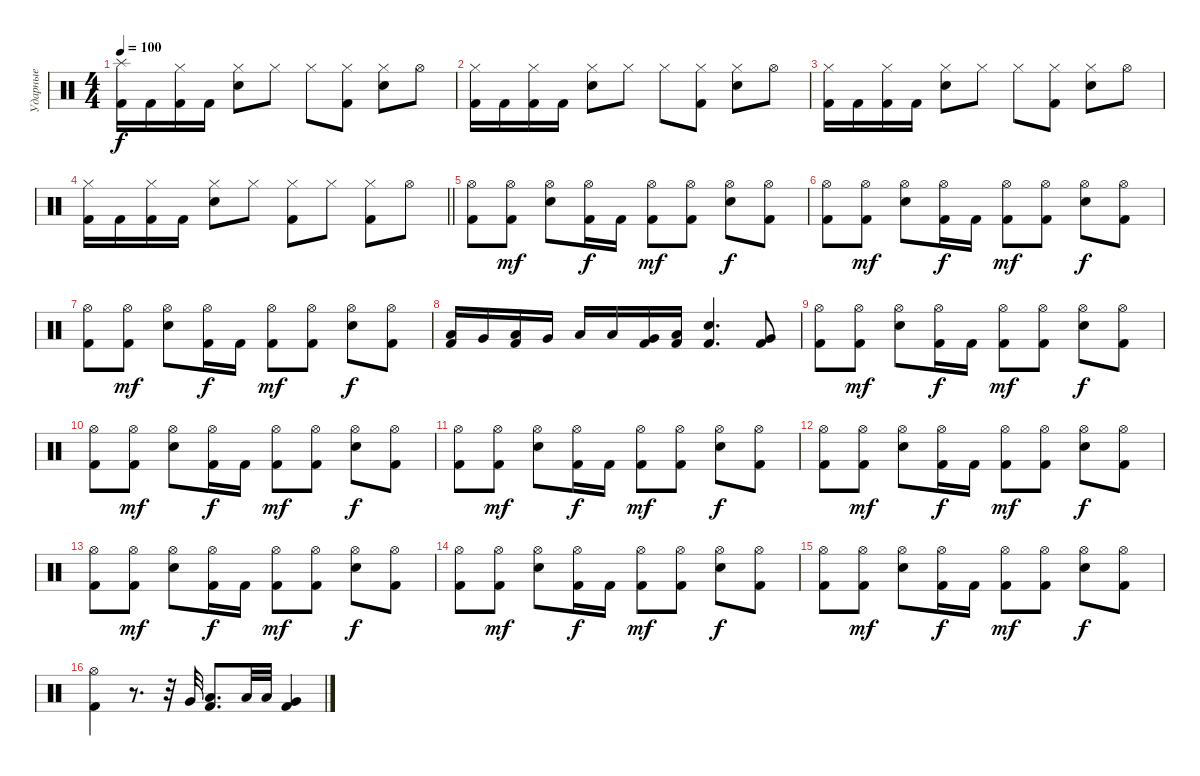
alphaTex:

\track ("Ударные" "Ударные") {instrument percussion}
\staff {score}
\articulation defaults
\ts (4 4)
\tempo 100
\clef neutral
\ks c
("Splash (hit)" "Kick (hit) 2").16{dy f} "Kick (hit) 2".16 ("Hi-Hat (closed)" "Kick (hit) 2").16 "Kick (hit) 2".16 ("Hi-Hat (closed)" "Snare (hit) 2").8 "Hi-Hat (closed)".8 "Hi-Hat (closed)".8 ("Hi-Hat (closed)" "Kick (hit) 2").8 ("Hi-Hat (closed)" "Snare (hit) 2").8 "Hi-Hat (open)".8 |
("Hi-Hat (closed)" "Kick (hit) 2").16 "Kick (hit) 2".16 ("Hi-Hat (closed)" "Kick (hit) 2").16 "Kick (hit) 2".16 ("Hi-Hat (closed)" "Snare (hit) 2").8 "Hi-Hat (closed)".8 "Hi-Hat (closed)".8 ("Hi-Hat (closed)" "Kick (hit) 2").8 ("Hi-Hat (closed)" "Snare (hit) 2").8 "Hi-Hat (open)".8 |
("Hi-Hat (closed)" "Kick (hit) 2").16 "Kick (hit) 2".16 ("Hi-Hat (closed)" "Kick (hit) 2").16 "Kick (hit) 2".16 ("Hi-Hat (closed)" "Snare (hit) 2").8 "Hi-Hat (closed)".8 "Hi-Hat (closed)".8 ("Hi-Hat (closed)" "Kick (hit) 2").8 ("Hi-Hat (closed)" "Snare (hit) 2").8 "Hi-Hat (open)".8 |
\barLineRight lightlight
("Hi-Hat (closed)" "Kick (hit) 2").16 "Kick (hit) 2".16 ("Hi-Hat (closed)" "Kick (hit) 2").16 "Kick (hit) 2".16 ("Hi-Hat (closed)" "Snare (hit) 2").8 "Hi-Hat (closed)".8 ("Hi-Hat (closed)" "Kick (hit) 2").8 "Hi-Hat (closed)".8 ("Hi-Hat (closed)" "Kick (hit) 2").8 "Hi-Hat (open)".8 |
("Hi-Hat (open)" "Kick (hit) 2").8 ("Hi-Hat (open)" "Kick (hit) 2").8{dy mf} ("Hi-Hat (open)" "Electric Snare (hit)").8 ("Hi-Hat (open)" "Kick (hit) 2").16{dy f} "Kick (hit) 2".16 ("Hi-Hat (open)" "Kick (hit) 2").8{dy mf} ("Hi-Hat (open)" "Kick (hit) 2").8 ("Hi-Hat (open)" "Electric Snare (hit)").8{dy f} ("Hi-Hat (open)" "Kick (hit) 2").8 |
("Hi-Hat (open)" "Kick (hit) 2").8 ("Hi-Hat (open)" "Kick (hit) 2").8{dy mf} ("Hi-Hat (open)" "Electric Snare (hit)").8 ("Hi-Hat (open)" "Kick (hit) 2").16{dy f} "Kick (hit) 2".16 ("Hi-Hat (open)" "Kick (hit) 2").8{dy mf} ("Hi-Hat (open)" "Kick (hit) 2").8 ("Hi-Hat (open)" "Electric Snare (hit)").8{dy f} ("Hi-Hat (open)" "Kick (hit) 2").8 |
("Hi-Hat (open)" "Kick (hit) 2").8 ("Hi-Hat (open)" "Kick (hit) 2").8{dy mf} ("Hi-Hat (open)" "Electric Snare (hit)").8 ("Hi-Hat (open)" "Kick (hit) 2").16{dy f} "Kick (hit) 2".16 ("Hi-Hat (open)" "Kick (hit) 2").8{dy mf} ("Hi-Hat (open)" "Kick (hit) 2").8 ("Hi-Hat (open)" "Electric Snare (hit)").8{dy f} ("Hi-Hat (open)" "Kick (hit) 2").8 |
("Low Tom (hit)" "Kick (hit) 2").16 "Very Low Tom (hit)".16 ("Low Tom (hit)" "Kick (hit) 2").16 "Very Low Tom (hit)".16 "Low Floor Tom (hit)".16 "Low Floor Tom (hit)".16 ("Very Low Tom (hit)" "Kick (hit) 2").16 ("Low Tom (hit)" "Kick (hit) 2").16 ("Electric Snare (hit)" "Kick (hit) 2").4{d} ("Very Low Tom (hit)" "Kick (hit) 2").8 |
("Hi-Hat (open)" "Kick (hit) 2").8 ("Hi-Hat (open)" "Kick (hit) 2").8{dy mf} ("Hi-Hat (open)" "Electric Snare (hit)").8 ("Hi-Hat (open)" "Kick (hit) 2").16{dy f} "Kick (hit) 2".16 ("Hi-Hat (open)" "Kick (hit) 2").8{dy mf} ("Hi-Hat (open)" "Kick (hit) 2").8 ("Hi-Hat (open)" "Electric Snare (hit)").8{dy f} ("Hi-Hat (open)" "Kick (hit) 2").8 |
("Hi-Hat (open)" "Kick (hit) 2").8 ("Hi-Hat (open)" "Kick (hit) 2").8{dy mf} ("Hi-Hat (open)" "Electric Snare (hit)").8 ("Hi-Hat (open)" "Kick (hit) 2").16{dy f} "Kick (hit) 2".16 ("Hi-Hat (open)" "Kick (hit) 2").8{dy mf} ("Hi-Hat (open)" "Kick (hit) 2").8 ("Hi-Hat (open)" "Electric Snare (hit)").8{dy f} ("Hi-Hat (open)" "Kick (hit) 2").8 |
("Hi-Hat (open)" "Kick (hit) 2").8 ("Hi-Hat (open)" "Kick (hit) 2").8{dy mf} ("Hi-Hat (open)" "Electric Snare (hit)").8 ("Hi-Hat (open)" "Kick (hit) 2").16{dy f} "Kick (hit) 2".16 ("Hi-Hat (open)" "Kick (hit) 2").8{dy mf} ("Hi-Hat (open)" "Kick (hit) 2").8 ("Hi-Hat (open)" "Electric Snare (hit)").8{dy f} ("Hi-Hat (open)" "Kick (hit) 2").8 |
("Hi-Hat (open)" "Kick (hit) 2").8 ("Hi-Hat (open)" "Kick (hit) 2").8{dy mf} ("Hi-Hat (open)" "Electric Snare (hit)").8 ("Hi-Hat (open)" "Kick (hit) 2").16{dy f} "Kick (hit) 2".16 ("Hi-Hat (open)" "Kick (hit) 2").8{dy mf} ("Hi-Hat (open)" "Kick (hit) 2").8 ("Hi-Hat (open)" "Electric Snare (hit)").8{dy f} ("Hi-Hat (open)" "Kick (hit) 2").8 |
("Hi-Hat (open)" "Kick (hit) 2").8 ("Hi-Hat (open)" "Kick (hit) 2").8{dy mf} ("Hi-Hat (open)" "Electric Snare (hit)").8 ("Hi-Hat (open)" "Kick (hit) 2").16{dy f} "Kick (hit) 2".16 ("Hi-Hat (open)" "Kick (hit) 2").8{dy mf} ("Hi-Hat (open)" "Kick (hit) 2").8 ("Hi-Hat (open)" "Electric Snare (hit)").8{dy f} ("Hi-Hat (open)" "Kick (hit) 2").8 |
("Hi-Hat (open)" "Kick (hit) 2").8 ("Hi-Hat (open)" "Kick (hit) 2").8{dy mf} ("Hi-Hat (open)" "Electric Snare (hit)").8 ("Hi-Hat (open)" "Kick (hit) 2").16{dy f} "Kick (hit) 2".16 ("Hi-Hat (open)" "Kick (hit) 2").8{dy mf} ("Hi-Hat (open)" "Kick (hit) 2").8 ("Hi-Hat (open)" "Electric Snare (hit)").8{dy f} ("Hi-Hat (open)" "Kick (hit) 2").8 |
("Hi-Hat (open)" "Kick (hit) 2").8 ("Hi-Hat (open)" "Kick (hit) 2").8{dy mf} ("Hi-Hat (open)" "Electric Snare (hit)").8 ("Hi-Hat (open)" "Kick (hit) 2").16{dy f} "Kick (hit) 2".16 ("Hi-Hat (open)" "Kick (hit) 2").8{dy mf} ("Hi-Hat (open)" "Kick (hit) 2").8 ("Hi-Hat (open)" "Electric Snare (hit)").8{dy f} ("Hi-Hat (open)" "Kick (hit) 2").8 |
("Hi-Hat (open)" "Kick (hit) 2").4 r.8{d} r.32 "Very Low Tom (hit)".32 ("Low Tom (hit)" "Kick (hit) 2").8{d} "Low Tom (hit)".32 "Low Tom (hit)".32 ("Very Low Tom (hit)" "Kick (hit) 2").4
